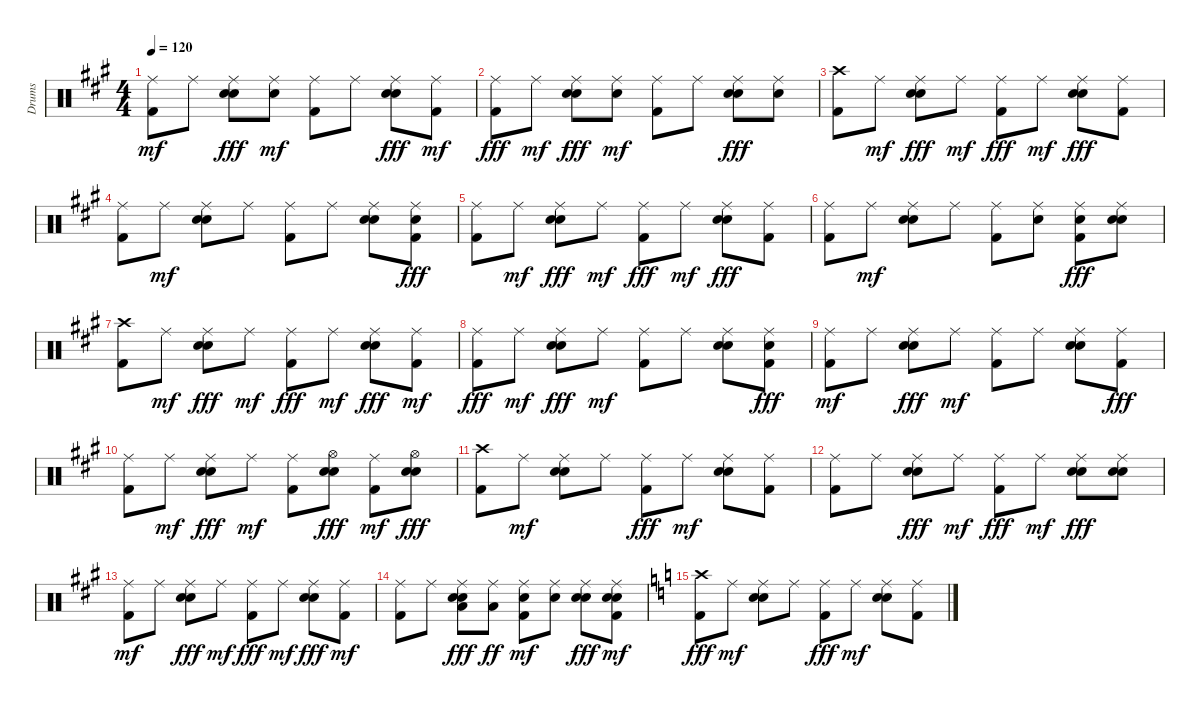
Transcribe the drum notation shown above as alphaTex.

\track ("Drums" "Drums") {instrument percussion}
\staff {score}
\articulation defaults
\ts (4 4)
\tempo 120
\clef neutral
\ks a
("Kick (hit) 2" "Ride (middle)").8{dy mf} "Ride (middle)".8 ("Hand Clap (hit)" "Ride (middle)" "Snare (hit) 2").8{dy fff} ("Hand Clap (hit)" "Ride (middle)").8{dy mf} ("Kick (hit) 2" "Ride (middle)").8 "Ride (middle)".8 ("Ride (middle)" "Snare (hit) 2" "Hand Clap (hit)").8{dy fff} ("Kick (hit) 2" "Ride (middle)").8{dy mf} |
("Ride (middle)" "Kick (hit) 2").8{dy fff} "Ride (middle)".8{dy mf} ("Ride (middle)" "Snare (hit) 2" "Hand Clap (hit)").8{dy fff} ("Hand Clap (hit)" "Ride (middle)").8{dy mf} ("Kick (hit) 2" "Ride (middle)").8 "Ride (middle)".8 ("Hand Clap (hit)" "Ride (middle)" "Snare (hit) 2").8{dy fff} ("Ride (middle)" "Snare (hit) 2").8 |
("Crash high (hit)" "Kick (hit) 2").8 "Ride (middle)".8{dy mf} ("Ride (middle)" "Snare (hit) 2" "Hand Clap (hit)").8{dy fff} "Ride (middle)".8{dy mf} ("Ride (middle)" "Kick (hit) 2").8{dy fff} "Ride (middle)".8{dy mf} ("Snare (hit) 2" "Ride (middle)" "Hand Clap (hit)").8{dy fff} ("Ride (middle)" "Kick (hit) 2").8 |
("Ride (middle)" "Kick (hit) 2").8 "Ride (middle)".8{dy mf} ("Hand Clap (hit)" "Snare (hit) 2" "Ride (middle)").8 "Ride (middle)".8 ("Kick (hit) 2" "Ride (middle)").8 "Ride (middle)".8 ("Snare (hit) 2" "Hand Clap (hit)" "Ride (middle)").8 ("Ride (middle)" "Kick (hit) 2" "Hand Clap (hit)").8{dy fff} |
("Ride (middle)" "Kick (hit) 2").8 "Ride (middle)".8{dy mf} ("Snare (hit) 2" "Ride (middle)" "Hand Clap (hit)").8{dy fff} "Ride (middle)".8{dy mf} ("Ride (middle)" "Kick (hit) 2").8{dy fff} "Ride (middle)".8{dy mf} ("Ride (middle)" "Snare (hit) 2" "Hand Clap (hit)").8{dy fff} ("Ride (middle)" "Kick (hit) 2").8 |
("Ride (middle)" "Kick (hit) 2").8 "Ride (middle)".8{dy mf} ("Snare (hit) 2" "Hand Clap (hit)" "Ride (middle)").8 "Ride (middle)".8 ("Kick (hit) 2" "Ride (middle)").8 ("Snare (hit) 2" "Ride (middle)").8 ("Kick (hit) 2" "Ride (middle)" "Hand Clap (hit)").8{dy fff} ("Ride (middle)" "Hand Clap (hit)" "Snare (hit) 2").8 |
("Kick (hit) 2" "Crash high (hit)").8 "Ride (middle)".8{dy mf} ("Hand Clap (hit)" "Ride (middle)" "Snare (hit) 2").8{dy fff} "Ride (middle)".8{dy mf} ("Ride (middle)" "Kick (hit) 2").8{dy fff} "Ride (middle)".8{dy mf} ("Snare (hit) 2" "Ride (middle)" "Hand Clap (hit)").8{dy fff} ("Kick (hit) 2" "Ride (middle)").8{dy mf} |
("Ride (middle)" "Kick (hit) 2").8{dy fff} "Ride (middle)".8{dy mf} ("Ride (middle)" "Hand Clap (hit)" "Snare (hit) 2").8{dy fff} "Ride (middle)".8{dy mf} ("Kick (hit) 2" "Ride (middle)").8 "Ride (middle)".8 ("Hand Clap (hit)" "Snare (hit) 2" "Ride (middle)").8 ("Hand Clap (hit)" "Ride (middle)" "Kick (hit) 2").8{dy fff} |
("Kick (hit) 2" "Ride (middle)").8{dy mf} "Ride (middle)".8 ("Snare (hit) 2" "Ride (middle)" "Hand Clap (hit)").8{dy fff} "Ride (middle)".8{dy mf} ("Kick (hit) 2" "Ride (middle)").8 "Ride (middle)".8 ("Hand Clap (hit)" "Snare (hit) 2" "Ride (middle)").8 ("Ride (middle)" "Kick (hit) 2").8{dy fff} |
("Ride (middle)" "Kick (hit) 2").8 "Ride (middle)".8{dy mf} ("Snare (hit) 2" "Ride (middle)" "Hand Clap (hit)").8{dy fff} "Ride (middle)".8{dy mf} ("Kick (hit) 2" "Ride (middle)").8 ("Hi-Hat (open)" "Hand Clap (hit)" "Snare (hit) 2").8{dy fff} ("Kick (hit) 2" "Ride (middle)").8{dy mf} ("Hi-Hat (open)" "Hand Clap (hit)" "Snare (hit) 2").8{dy fff} |
("Kick (hit) 2" "Crash high (hit)").8 "Ride (middle)".8{dy mf} ("Snare (hit) 2" "Hand Clap (hit)" "Ride (middle)").8 "Ride (middle)".8 ("Ride (middle)" "Kick (hit) 2").8{dy fff} "Ride (middle)".8{dy mf} ("Hand Clap (hit)" "Snare (hit) 2" "Ride (middle)").8 ("Kick (hit) 2" "Ride (middle)").8 |
("Kick (hit) 2" "Ride (middle)").8 "Ride (middle)".8 ("Ride (middle)" "Hand Clap (hit)" "Snare (hit) 2").8{dy fff} "Ride (middle)".8{dy mf} ("Ride (middle)" "Kick (hit) 2").8{dy fff} "Ride (middle)".8{dy mf} ("Ride (middle)" "Hand Clap (hit)" "Snare (hit) 2").8{dy fff} ("Snare (hit) 2" "Ride (middle)" "Hand Clap (hit)").8 |
("Kick (hit) 2" "Ride (middle)").8{dy mf} "Ride (middle)".8 ("Ride (middle)" "Hand Clap (hit)" "Snare (hit) 2").8{dy fff} "Ride (middle)".8{dy mf} ("Ride (middle)" "Kick (hit) 2").8{dy fff} "Ride (middle)".8{dy mf} ("Ride (middle)" "Snare (hit) 2" "Hand Clap (hit)").8{dy fff} ("Kick (hit) 2" "Ride (middle)").8{dy mf} |
("Kick (hit) 2" "Ride (middle)").8 "Ride (middle)".8 ("Ride (middle)" "Low Tom (hit)" "Snare (hit) 2" "Hand Clap (hit)").8{dy fff} ("Ride (middle)" "Low Floor Tom (hit)").8{dy ff} ("Kick (hit) 2" "Snare (hit) 2" "Ride (middle)").8{dy mf} ("Snare (hit) 2" "Ride (middle)").8 ("Snare (hit) 2" "Ride (middle)" "Hand Clap (hit)").8{dy fff} ("Snare (hit) 2" "Kick (hit) 2" "Hand Clap (hit)" "Ride (middle)").8{dy mf} |
\ks c
("Kick (hit) 2" "Crash high (hit)").8{dy fff} "Ride (middle)".8{dy mf} ("Snare (hit) 2" "Hand Clap (hit)" "Ride (middle)").8 "Ride (middle)".8 ("Ride (middle)" "Kick (hit) 2").8{dy fff} "Ride (middle)".8{dy mf} ("Hand Clap (hit)" "Snare (hit) 2" "Ride (middle)").8 ("Kick (hit) 2" "Ride (middle)").8
